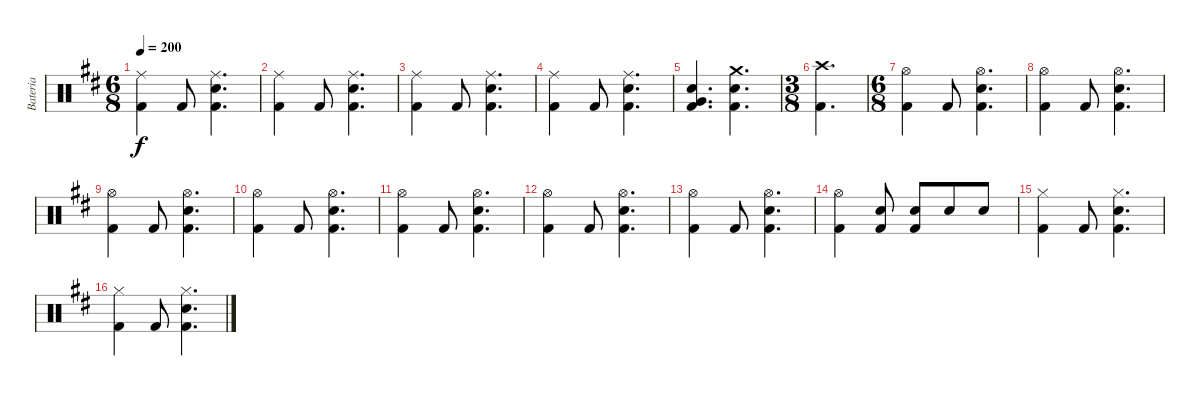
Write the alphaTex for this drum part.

\track ("Bateria" "Bateria") {instrument percussion}
\staff {score}
\articulation defaults
\ts (6 8)
\tempo 200
\clef neutral
\ks bminor
("Ride (middle)" "Kick (hit) 2").4{dy f} "Kick (hit) 2".8 ("Ride (middle)" "Electric Snare (hit)" "Kick (hit) 2").4{d} |
("Ride (middle)" "Kick (hit) 2").4 "Kick (hit) 2".8 ("Ride (middle)" "Electric Snare (hit)" "Kick (hit) 2").4{d} |
("Ride (middle)" "Kick (hit) 2").4 "Kick (hit) 2".8 ("Ride (middle)" "Electric Snare (hit)" "Kick (hit) 2").4{d} |
("Ride (middle)" "Kick (hit) 2").4 "Kick (hit) 2".8 ("Ride (middle)" "Electric Snare (hit)" "Kick (hit) 2").4{d} |
("Very Low Tom (hit)" "Electric Snare (hit)" "Kick (hit) 2").4{d} ("Crash medium (hit)" "Electric Snare (hit)" "Kick (hit) 2").4{d} |
\ts (3 8)
("Crash high (hit)" "Kick (hit) 2").4{d} |
\ts (6 8)
("Hi-Hat (open)" "Kick (hit) 2").4 "Kick (hit) 2".8 ("Hi-Hat (open)" "Electric Snare (hit)" "Kick (hit) 2").4{d} |
("Hi-Hat (open)" "Kick (hit) 2").4 "Kick (hit) 2".8 ("Hi-Hat (open)" "Electric Snare (hit)" "Kick (hit) 2").4{d} |
("Hi-Hat (open)" "Kick (hit) 2").4 "Kick (hit) 2".8 ("Hi-Hat (open)" "Electric Snare (hit)" "Kick (hit) 2").4{d} |
("Hi-Hat (open)" "Kick (hit) 2").4 "Kick (hit) 2".8 ("Hi-Hat (open)" "Electric Snare (hit)" "Kick (hit) 2").4{d} |
("Hi-Hat (open)" "Kick (hit) 2").4 "Kick (hit) 2".8 ("Hi-Hat (open)" "Electric Snare (hit)" "Kick (hit) 2").4{d} |
("Hi-Hat (open)" "Kick (hit) 2").4 "Kick (hit) 2".8 ("Hi-Hat (open)" "Electric Snare (hit)" "Kick (hit) 2").4{d} |
("Hi-Hat (open)" "Kick (hit) 2").4 "Kick (hit) 2".8 ("Hi-Hat (open)" "Electric Snare (hit)" "Kick (hit) 2").4{d} |
("Hi-Hat (open)" "Kick (hit) 2").4 ("Electric Snare (hit)" "Kick (hit) 2").8 ("Electric Snare (hit)" "Kick (hit) 2").8 "Electric Snare (hit)".8 "Electric Snare (hit)".8 |
("Hi-Hat (closed)" "Kick (hit) 2").4 "Kick (hit) 2".8 ("Hi-Hat (closed)" "Electric Snare (hit)" "Kick (hit) 2").4{d} |
("Hi-Hat (closed)" "Kick (hit) 2").4 "Kick (hit) 2".8 ("Hi-Hat (closed)" "Electric Snare (hit)" "Kick (hit) 2").4{d}
